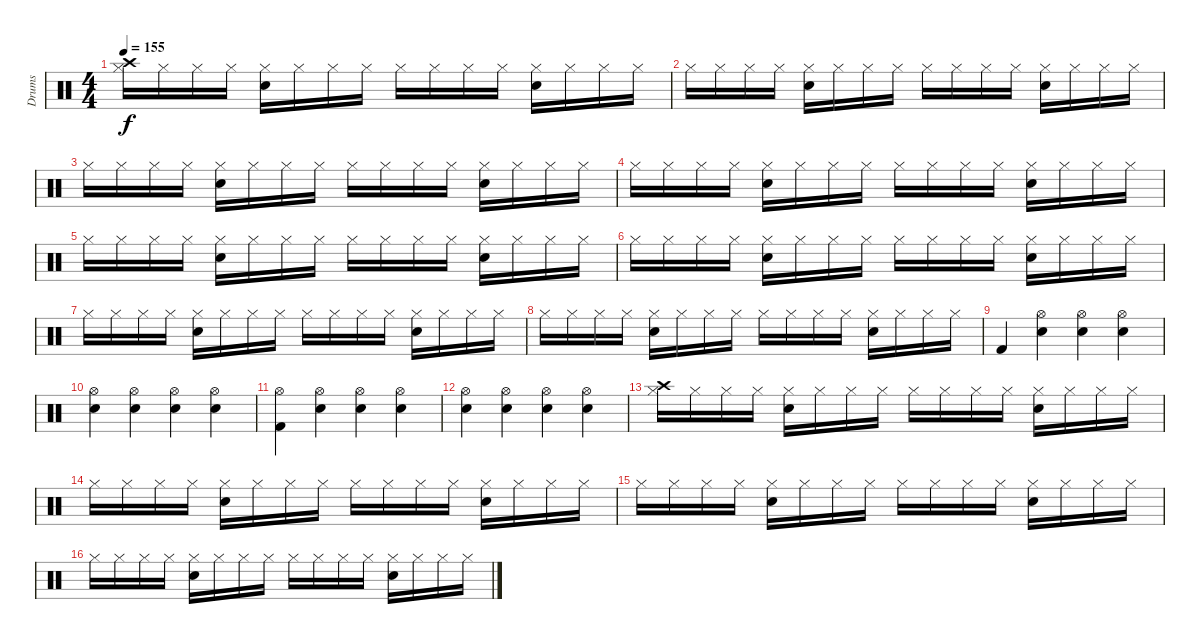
\track ("Drums" "Drums") {instrument percussion}
\staff {score}
\articulation defaults
\ts (4 4)
\tempo 155
\clef neutral
\ks c
("Hi-Hat (closed)" "Crash high (hit)").16{dy f} "Hi-Hat (closed)".16 "Hi-Hat (closed)".16 "Hi-Hat (closed)".16 ("Hi-Hat (closed)" "Electric Snare (hit)").16 "Hi-Hat (closed)".16 "Hi-Hat (closed)".16 "Hi-Hat (closed)".16 "Hi-Hat (closed)".16 "Hi-Hat (closed)".16 "Hi-Hat (closed)".16 "Hi-Hat (closed)".16 ("Hi-Hat (closed)" "Electric Snare (hit)").16 "Hi-Hat (closed)".16 "Hi-Hat (closed)".16 "Hi-Hat (closed)".16 |
"Hi-Hat (closed)".16 "Hi-Hat (closed)".16 "Hi-Hat (closed)".16 "Hi-Hat (closed)".16 ("Hi-Hat (closed)" "Electric Snare (hit)").16 "Hi-Hat (closed)".16 "Hi-Hat (closed)".16 "Hi-Hat (closed)".16 "Hi-Hat (closed)".16 "Hi-Hat (closed)".16 "Hi-Hat (closed)".16 "Hi-Hat (closed)".16 ("Hi-Hat (closed)" "Electric Snare (hit)").16 "Hi-Hat (closed)".16 "Hi-Hat (closed)".16 "Hi-Hat (closed)".16 |
"Hi-Hat (closed)".16 "Hi-Hat (closed)".16 "Hi-Hat (closed)".16 "Hi-Hat (closed)".16 ("Hi-Hat (closed)" "Electric Snare (hit)").16 "Hi-Hat (closed)".16 "Hi-Hat (closed)".16 "Hi-Hat (closed)".16 "Hi-Hat (closed)".16 "Hi-Hat (closed)".16 "Hi-Hat (closed)".16 "Hi-Hat (closed)".16 ("Hi-Hat (closed)" "Electric Snare (hit)").16 "Hi-Hat (closed)".16 "Hi-Hat (closed)".16 "Hi-Hat (closed)".16 |
"Hi-Hat (closed)".16 "Hi-Hat (closed)".16 "Hi-Hat (closed)".16 "Hi-Hat (closed)".16 ("Hi-Hat (closed)" "Electric Snare (hit)").16 "Hi-Hat (closed)".16 "Hi-Hat (closed)".16 "Hi-Hat (closed)".16 "Hi-Hat (closed)".16 "Hi-Hat (closed)".16 "Hi-Hat (closed)".16 "Hi-Hat (closed)".16 ("Hi-Hat (closed)" "Electric Snare (hit)").16 "Hi-Hat (closed)".16 "Hi-Hat (closed)".16 "Hi-Hat (closed)".16 |
"Hi-Hat (closed)".16 "Hi-Hat (closed)".16 "Hi-Hat (closed)".16 "Hi-Hat (closed)".16 ("Hi-Hat (closed)" "Electric Snare (hit)").16 "Hi-Hat (closed)".16 "Hi-Hat (closed)".16 "Hi-Hat (closed)".16 "Hi-Hat (closed)".16 "Hi-Hat (closed)".16 "Hi-Hat (closed)".16 "Hi-Hat (closed)".16 ("Hi-Hat (closed)" "Electric Snare (hit)").16 "Hi-Hat (closed)".16 "Hi-Hat (closed)".16 "Hi-Hat (closed)".16 |
"Hi-Hat (closed)".16 "Hi-Hat (closed)".16 "Hi-Hat (closed)".16 "Hi-Hat (closed)".16 ("Hi-Hat (closed)" "Electric Snare (hit)").16 "Hi-Hat (closed)".16 "Hi-Hat (closed)".16 "Hi-Hat (closed)".16 "Hi-Hat (closed)".16 "Hi-Hat (closed)".16 "Hi-Hat (closed)".16 "Hi-Hat (closed)".16 ("Hi-Hat (closed)" "Electric Snare (hit)").16 "Hi-Hat (closed)".16 "Hi-Hat (closed)".16 "Hi-Hat (closed)".16 |
"Hi-Hat (closed)".16 "Hi-Hat (closed)".16 "Hi-Hat (closed)".16 "Hi-Hat (closed)".16 ("Hi-Hat (closed)" "Electric Snare (hit)").16 "Hi-Hat (closed)".16 "Hi-Hat (closed)".16 "Hi-Hat (closed)".16 "Hi-Hat (closed)".16 "Hi-Hat (closed)".16 "Hi-Hat (closed)".16 "Hi-Hat (closed)".16 ("Hi-Hat (closed)" "Electric Snare (hit)").16 "Hi-Hat (closed)".16 "Hi-Hat (closed)".16 "Hi-Hat (closed)".16 |
"Hi-Hat (closed)".16 "Hi-Hat (closed)".16 "Hi-Hat (closed)".16 "Hi-Hat (closed)".16 ("Hi-Hat (closed)" "Electric Snare (hit)").16 "Hi-Hat (closed)".16 "Hi-Hat (closed)".16 "Hi-Hat (closed)".16 "Hi-Hat (closed)".16 "Hi-Hat (closed)".16 "Hi-Hat (closed)".16 "Hi-Hat (closed)".16 ("Hi-Hat (closed)" "Electric Snare (hit)").16 "Hi-Hat (closed)".16 "Hi-Hat (closed)".16 "Hi-Hat (closed)".16 |
"Kick (hit) 2".4 ("Hi-Hat (open)" "Electric Snare (hit)").4 ("Hi-Hat (open)" "Electric Snare (hit)").4 ("Hi-Hat (open)" "Electric Snare (hit)").4 |
("Hi-Hat (open)" "Electric Snare (hit)").4 ("Hi-Hat (open)" "Electric Snare (hit)").4 ("Hi-Hat (open)" "Electric Snare (hit)").4 ("Hi-Hat (open)" "Electric Snare (hit)").4 |
("Hi-Hat (open)" "Kick (hit) 2").4 ("Hi-Hat (open)" "Electric Snare (hit)").4 ("Hi-Hat (open)" "Electric Snare (hit)").4 ("Hi-Hat (open)" "Electric Snare (hit)").4 |
("Hi-Hat (open)" "Electric Snare (hit)").4 ("Hi-Hat (open)" "Electric Snare (hit)").4 ("Hi-Hat (open)" "Electric Snare (hit)").4 ("Hi-Hat (open)" "Electric Snare (hit)").4 |
("Hi-Hat (closed)" "Crash high (hit)").16 "Hi-Hat (closed)".16 "Hi-Hat (closed)".16 "Hi-Hat (closed)".16 ("Hi-Hat (closed)" "Electric Snare (hit)").16 "Hi-Hat (closed)".16 "Hi-Hat (closed)".16 "Hi-Hat (closed)".16 "Hi-Hat (closed)".16 "Hi-Hat (closed)".16 "Hi-Hat (closed)".16 "Hi-Hat (closed)".16 ("Hi-Hat (closed)" "Electric Snare (hit)").16 "Hi-Hat (closed)".16 "Hi-Hat (closed)".16 "Hi-Hat (closed)".16 |
"Hi-Hat (closed)".16 "Hi-Hat (closed)".16 "Hi-Hat (closed)".16 "Hi-Hat (closed)".16 ("Hi-Hat (closed)" "Electric Snare (hit)").16 "Hi-Hat (closed)".16 "Hi-Hat (closed)".16 "Hi-Hat (closed)".16 "Hi-Hat (closed)".16 "Hi-Hat (closed)".16 "Hi-Hat (closed)".16 "Hi-Hat (closed)".16 ("Hi-Hat (closed)" "Electric Snare (hit)").16 "Hi-Hat (closed)".16 "Hi-Hat (closed)".16 "Hi-Hat (closed)".16 |
"Hi-Hat (closed)".16 "Hi-Hat (closed)".16 "Hi-Hat (closed)".16 "Hi-Hat (closed)".16 ("Hi-Hat (closed)" "Electric Snare (hit)").16 "Hi-Hat (closed)".16 "Hi-Hat (closed)".16 "Hi-Hat (closed)".16 "Hi-Hat (closed)".16 "Hi-Hat (closed)".16 "Hi-Hat (closed)".16 "Hi-Hat (closed)".16 ("Hi-Hat (closed)" "Electric Snare (hit)").16 "Hi-Hat (closed)".16 "Hi-Hat (closed)".16 "Hi-Hat (closed)".16 |
"Hi-Hat (closed)".16 "Hi-Hat (closed)".16 "Hi-Hat (closed)".16 "Hi-Hat (closed)".16 ("Hi-Hat (closed)" "Electric Snare (hit)").16 "Hi-Hat (closed)".16 "Hi-Hat (closed)".16 "Hi-Hat (closed)".16 "Hi-Hat (closed)".16 "Hi-Hat (closed)".16 "Hi-Hat (closed)".16 "Hi-Hat (closed)".16 ("Hi-Hat (closed)" "Electric Snare (hit)").16 "Hi-Hat (closed)".16 "Hi-Hat (closed)".16 "Hi-Hat (closed)".16
